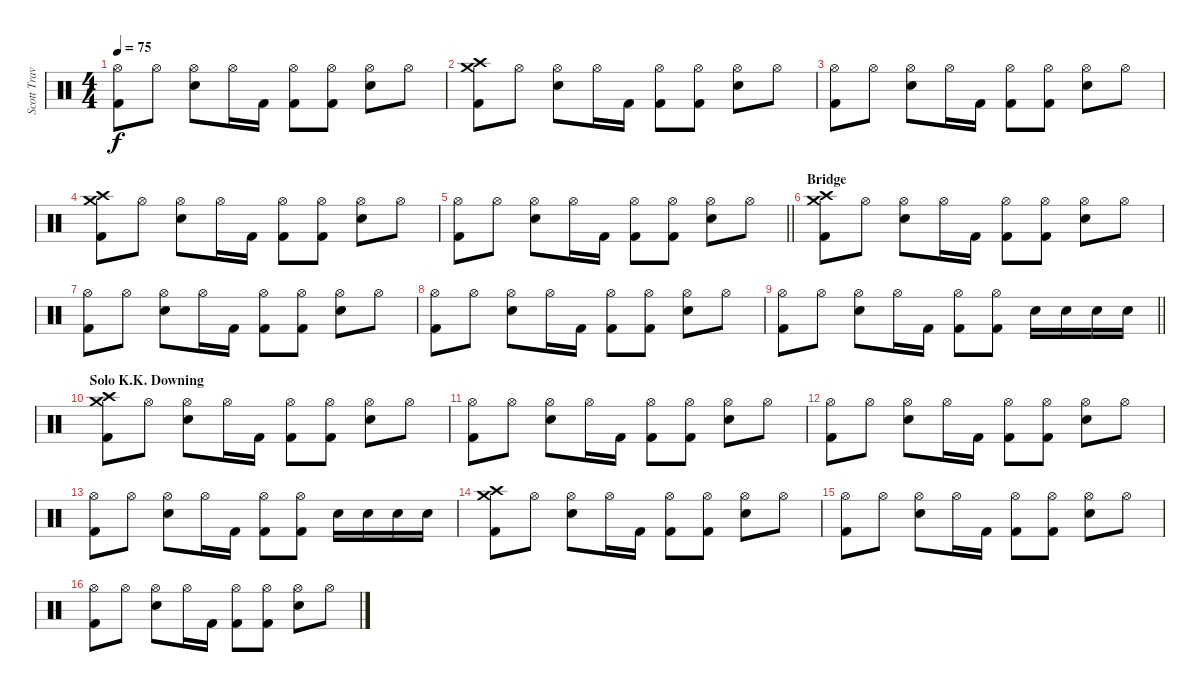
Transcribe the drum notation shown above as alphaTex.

\track ("Scott Travis" "Scott Trav") {instrument percussion}
\staff {score}
\articulation defaults
\ts (4 4)
\tempo 75
\clef neutral
\ks c
("Hi-Hat (open)" "Kick (hit) 2").8{dy f} "Hi-Hat (open)".8 ("Hi-Hat (open)" "Snare (hit) 2").8 "Hi-Hat (open)".16 "Kick (hit) 2".16 ("Hi-Hat (open)" "Kick (hit) 2").8 ("Hi-Hat (open)" "Kick (hit) 2").8 ("Hi-Hat (open)" "Snare (hit) 2").8 "Hi-Hat (open)".8 |
("Crash high (hit)" "Crash medium (hit)" "Kick (hit) 2").8 "Hi-Hat (open)".8 ("Hi-Hat (open)" "Snare (hit) 2").8 "Hi-Hat (open)".16 "Kick (hit) 2".16 ("Hi-Hat (open)" "Kick (hit) 2").8 ("Hi-Hat (open)" "Kick (hit) 2").8 ("Hi-Hat (open)" "Snare (hit) 2").8 "Hi-Hat (open)".8 |
("Hi-Hat (open)" "Kick (hit) 2").8 "Hi-Hat (open)".8 ("Hi-Hat (open)" "Snare (hit) 2").8 "Hi-Hat (open)".16 "Kick (hit) 2".16 ("Hi-Hat (open)" "Kick (hit) 2").8 ("Hi-Hat (open)" "Kick (hit) 2").8 ("Hi-Hat (open)" "Snare (hit) 2").8 "Hi-Hat (open)".8 |
("Crash high (hit)" "Crash medium (hit)" "Kick (hit) 2").8 "Hi-Hat (open)".8 ("Hi-Hat (open)" "Snare (hit) 2").8 "Hi-Hat (open)".16 "Kick (hit) 2".16 ("Hi-Hat (open)" "Kick (hit) 2").8 ("Hi-Hat (open)" "Kick (hit) 2").8 ("Hi-Hat (open)" "Snare (hit) 2").8 "Hi-Hat (open)".8 |
\barLineRight lightlight
("Hi-Hat (open)" "Kick (hit) 2").8 "Hi-Hat (open)".8 ("Hi-Hat (open)" "Snare (hit) 2").8 "Hi-Hat (open)".16 "Kick (hit) 2".16 ("Hi-Hat (open)" "Kick (hit) 2").8 ("Hi-Hat (open)" "Kick (hit) 2").8 ("Hi-Hat (open)" "Snare (hit) 2").8 "Hi-Hat (open)".8 |
\section ("" "Bridge")
("Crash high (hit)" "Crash medium (hit)" "Kick (hit) 2").8 "Hi-Hat (open)".8 ("Hi-Hat (open)" "Snare (hit) 2").8 "Hi-Hat (open)".16 "Kick (hit) 2".16 ("Hi-Hat (open)" "Kick (hit) 2").8 ("Hi-Hat (open)" "Kick (hit) 2").8 ("Hi-Hat (open)" "Snare (hit) 2").8 "Hi-Hat (open)".8 |
("Hi-Hat (open)" "Kick (hit) 2").8 "Hi-Hat (open)".8 ("Hi-Hat (open)" "Snare (hit) 2").8 "Hi-Hat (open)".16 "Kick (hit) 2".16 ("Hi-Hat (open)" "Kick (hit) 2").8 ("Hi-Hat (open)" "Kick (hit) 2").8 ("Hi-Hat (open)" "Snare (hit) 2").8 "Hi-Hat (open)".8 |
("Hi-Hat (open)" "Kick (hit) 2").8 "Hi-Hat (open)".8 ("Hi-Hat (open)" "Snare (hit) 2").8 "Hi-Hat (open)".16 "Kick (hit) 2".16 ("Hi-Hat (open)" "Kick (hit) 2").8 ("Hi-Hat (open)" "Kick (hit) 2").8 ("Hi-Hat (open)" "Snare (hit) 2").8 "Hi-Hat (open)".8 |
\barLineRight lightlight
("Hi-Hat (open)" "Kick (hit) 2").8 "Hi-Hat (open)".8 ("Hi-Hat (open)" "Snare (hit) 2").8 "Hi-Hat (open)".16 "Kick (hit) 2".16 ("Hi-Hat (open)" "Kick (hit) 2").8 ("Hi-Hat (open)" "Kick (hit) 2").8 "Snare (hit) 2".16 "Snare (hit) 2".16 "Snare (hit) 2".16 "Snare (hit) 2".16 |
\section ("" "Solo K.K. Downing")
("Crash high (hit)" "Crash medium (hit)" "Kick (hit) 2").8 "Hi-Hat (open)".8 ("Hi-Hat (open)" "Snare (hit) 2").8 "Hi-Hat (open)".16 "Kick (hit) 2".16 ("Hi-Hat (open)" "Kick (hit) 2").8 ("Hi-Hat (open)" "Kick (hit) 2").8 ("Hi-Hat (open)" "Snare (hit) 2").8 "Hi-Hat (open)".8 |
("Hi-Hat (open)" "Kick (hit) 2").8 "Hi-Hat (open)".8 ("Hi-Hat (open)" "Snare (hit) 2").8 "Hi-Hat (open)".16 "Kick (hit) 2".16 ("Hi-Hat (open)" "Kick (hit) 2").8 ("Hi-Hat (open)" "Kick (hit) 2").8 ("Hi-Hat (open)" "Snare (hit) 2").8 "Hi-Hat (open)".8 |
("Hi-Hat (open)" "Kick (hit) 2").8 "Hi-Hat (open)".8 ("Hi-Hat (open)" "Snare (hit) 2").8 "Hi-Hat (open)".16 "Kick (hit) 2".16 ("Hi-Hat (open)" "Kick (hit) 2").8 ("Hi-Hat (open)" "Kick (hit) 2").8 ("Hi-Hat (open)" "Snare (hit) 2").8 "Hi-Hat (open)".8 |
("Hi-Hat (open)" "Kick (hit) 2").8 "Hi-Hat (open)".8 ("Hi-Hat (open)" "Snare (hit) 2").8 "Hi-Hat (open)".16 "Kick (hit) 2".16 ("Hi-Hat (open)" "Kick (hit) 2").8 ("Hi-Hat (open)" "Kick (hit) 2").8 "Snare (hit) 2".16 "Snare (hit) 2".16 "Snare (hit) 2".16 "Snare (hit) 2".16 |
("Crash high (hit)" "Crash medium (hit)" "Kick (hit) 2").8 "Hi-Hat (open)".8 ("Hi-Hat (open)" "Snare (hit) 2").8 "Hi-Hat (open)".16 "Kick (hit) 2".16 ("Hi-Hat (open)" "Kick (hit) 2").8 ("Hi-Hat (open)" "Kick (hit) 2").8 ("Hi-Hat (open)" "Snare (hit) 2").8 "Hi-Hat (open)".8 |
("Hi-Hat (open)" "Kick (hit) 2").8 "Hi-Hat (open)".8 ("Hi-Hat (open)" "Snare (hit) 2").8 "Hi-Hat (open)".16 "Kick (hit) 2".16 ("Hi-Hat (open)" "Kick (hit) 2").8 ("Hi-Hat (open)" "Kick (hit) 2").8 ("Hi-Hat (open)" "Snare (hit) 2").8 "Hi-Hat (open)".8 |
("Hi-Hat (open)" "Kick (hit) 2").8 "Hi-Hat (open)".8 ("Hi-Hat (open)" "Snare (hit) 2").8 "Hi-Hat (open)".16 "Kick (hit) 2".16 ("Hi-Hat (open)" "Kick (hit) 2").8 ("Hi-Hat (open)" "Kick (hit) 2").8 ("Hi-Hat (open)" "Snare (hit) 2").8 "Hi-Hat (open)".8
